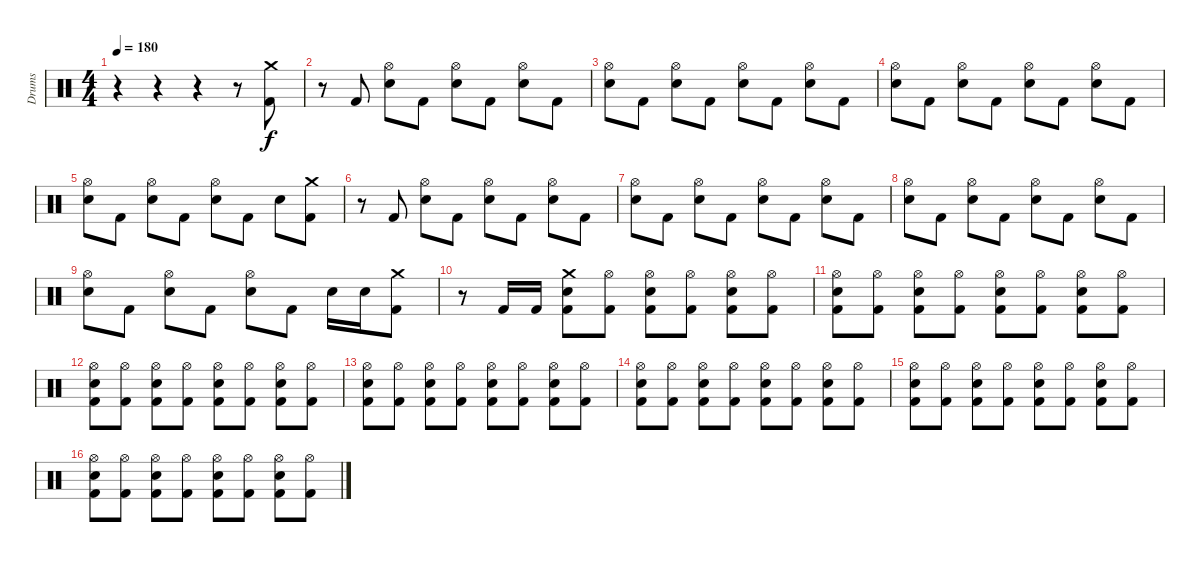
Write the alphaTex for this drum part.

\track ("Drums" "Drums") {instrument percussion}
\staff {score}
\articulation defaults
\ts (4 4)
\tempo 180
\clef neutral
\ks c
r.4{dy f} r.4 r.4 r.8 ("Crash medium (hit)" "Kick (hit) 2").8 |
r.8 "Kick (hit) 2".8 ("Hi-Hat (open)" "Electric Snare (hit)").8 "Kick (hit) 2".8 ("Hi-Hat (open)" "Electric Snare (hit)").8 "Kick (hit) 2".8 ("Hi-Hat (open)" "Electric Snare (hit)").8 "Kick (hit) 2".8 |
("Hi-Hat (open)" "Electric Snare (hit)").8 "Kick (hit) 2".8 ("Hi-Hat (open)" "Electric Snare (hit)").8 "Kick (hit) 2".8 ("Hi-Hat (open)" "Electric Snare (hit)").8 "Kick (hit) 2".8 ("Hi-Hat (open)" "Electric Snare (hit)").8 "Kick (hit) 2".8 |
("Hi-Hat (open)" "Electric Snare (hit)").8 "Kick (hit) 2".8 ("Hi-Hat (open)" "Electric Snare (hit)").8 "Kick (hit) 2".8 ("Hi-Hat (open)" "Electric Snare (hit)").8 "Kick (hit) 2".8 ("Hi-Hat (open)" "Electric Snare (hit)").8 "Kick (hit) 2".8 |
("Hi-Hat (open)" "Electric Snare (hit)").8 "Kick (hit) 2".8 ("Hi-Hat (open)" "Electric Snare (hit)").8 "Kick (hit) 2".8 ("Hi-Hat (open)" "Electric Snare (hit)").8 "Kick (hit) 2".8 "Electric Snare (hit)".8 ("Crash medium (hit)" "Kick (hit) 2").8 |
r.8 "Kick (hit) 2".8 ("Hi-Hat (open)" "Electric Snare (hit)").8 "Kick (hit) 2".8 ("Hi-Hat (open)" "Electric Snare (hit)").8 "Kick (hit) 2".8 ("Hi-Hat (open)" "Electric Snare (hit)").8 "Kick (hit) 2".8 |
("Hi-Hat (open)" "Electric Snare (hit)").8 "Kick (hit) 2".8 ("Hi-Hat (open)" "Electric Snare (hit)").8 "Kick (hit) 2".8 ("Hi-Hat (open)" "Electric Snare (hit)").8 "Kick (hit) 2".8 ("Hi-Hat (open)" "Electric Snare (hit)").8 "Kick (hit) 2".8 |
("Hi-Hat (open)" "Electric Snare (hit)").8 "Kick (hit) 2".8 ("Hi-Hat (open)" "Electric Snare (hit)").8 "Kick (hit) 2".8 ("Hi-Hat (open)" "Electric Snare (hit)").8 "Kick (hit) 2".8 ("Hi-Hat (open)" "Electric Snare (hit)").8 "Kick (hit) 2".8 |
("Hi-Hat (open)" "Electric Snare (hit)").8 "Kick (hit) 2".8 ("Hi-Hat (open)" "Electric Snare (hit)").8 "Kick (hit) 2".8 ("Hi-Hat (open)" "Electric Snare (hit)").8 "Kick (hit) 2".8 "Electric Snare (hit)".16 "Electric Snare (hit)".16 ("Crash medium (hit)" "Kick (hit) 2").8 |
r.8 "Kick (hit) 2".16 "Kick (hit) 2".16 ("Crash medium (hit)" "Electric Snare (hit)" "Kick (hit) 2").8 ("Hi-Hat (open)" "Kick (hit) 2").8 ("Hi-Hat (open)" "Electric Snare (hit)" "Kick (hit) 2").8 ("Hi-Hat (open)" "Kick (hit) 2").8 ("Hi-Hat (open)" "Electric Snare (hit)" "Kick (hit) 2").8 ("Hi-Hat (open)" "Kick (hit) 2").8 |
("Hi-Hat (open)" "Electric Snare (hit)" "Kick (hit) 2").8 ("Hi-Hat (open)" "Kick (hit) 2").8 ("Hi-Hat (open)" "Electric Snare (hit)" "Kick (hit) 2").8 ("Hi-Hat (open)" "Kick (hit) 2").8 ("Hi-Hat (open)" "Electric Snare (hit)" "Kick (hit) 2").8 ("Hi-Hat (open)" "Kick (hit) 2").8 ("Hi-Hat (open)" "Electric Snare (hit)" "Kick (hit) 2").8 ("Hi-Hat (open)" "Kick (hit) 2").8 |
("Hi-Hat (open)" "Electric Snare (hit)" "Kick (hit) 2").8 ("Hi-Hat (open)" "Kick (hit) 2").8 ("Hi-Hat (open)" "Electric Snare (hit)" "Kick (hit) 2").8 ("Hi-Hat (open)" "Kick (hit) 2").8 ("Hi-Hat (open)" "Electric Snare (hit)" "Kick (hit) 2").8 ("Hi-Hat (open)" "Kick (hit) 2").8 ("Hi-Hat (open)" "Electric Snare (hit)" "Kick (hit) 2").8 ("Hi-Hat (open)" "Kick (hit) 2").8 |
("Hi-Hat (open)" "Electric Snare (hit)" "Kick (hit) 2").8 ("Hi-Hat (open)" "Kick (hit) 2").8 ("Hi-Hat (open)" "Electric Snare (hit)" "Kick (hit) 2").8 ("Hi-Hat (open)" "Kick (hit) 2").8 ("Hi-Hat (open)" "Electric Snare (hit)" "Kick (hit) 2").8 ("Hi-Hat (open)" "Kick (hit) 2").8 ("Hi-Hat (open)" "Electric Snare (hit)" "Kick (hit) 2").8 ("Hi-Hat (open)" "Kick (hit) 2").8 |
("Hi-Hat (open)" "Electric Snare (hit)" "Kick (hit) 2").8 ("Hi-Hat (open)" "Kick (hit) 2").8 ("Hi-Hat (open)" "Electric Snare (hit)" "Kick (hit) 2").8 ("Hi-Hat (open)" "Kick (hit) 2").8 ("Hi-Hat (open)" "Electric Snare (hit)" "Kick (hit) 2").8 ("Hi-Hat (open)" "Kick (hit) 2").8 ("Hi-Hat (open)" "Electric Snare (hit)" "Kick (hit) 2").8 ("Hi-Hat (open)" "Kick (hit) 2").8 |
("Hi-Hat (open)" "Electric Snare (hit)" "Kick (hit) 2").8 ("Hi-Hat (open)" "Kick (hit) 2").8 ("Hi-Hat (open)" "Electric Snare (hit)" "Kick (hit) 2").8 ("Hi-Hat (open)" "Kick (hit) 2").8 ("Hi-Hat (open)" "Electric Snare (hit)" "Kick (hit) 2").8 ("Hi-Hat (open)" "Kick (hit) 2").8 ("Hi-Hat (open)" "Electric Snare (hit)" "Kick (hit) 2").8 ("Hi-Hat (open)" "Kick (hit) 2").8 |
("Hi-Hat (open)" "Electric Snare (hit)" "Kick (hit) 2").8 ("Hi-Hat (open)" "Kick (hit) 2").8 ("Hi-Hat (open)" "Electric Snare (hit)" "Kick (hit) 2").8 ("Hi-Hat (open)" "Kick (hit) 2").8 ("Hi-Hat (open)" "Electric Snare (hit)" "Kick (hit) 2").8 ("Hi-Hat (open)" "Kick (hit) 2").8 ("Hi-Hat (open)" "Electric Snare (hit)" "Kick (hit) 2").8 ("Hi-Hat (open)" "Kick (hit) 2").8
